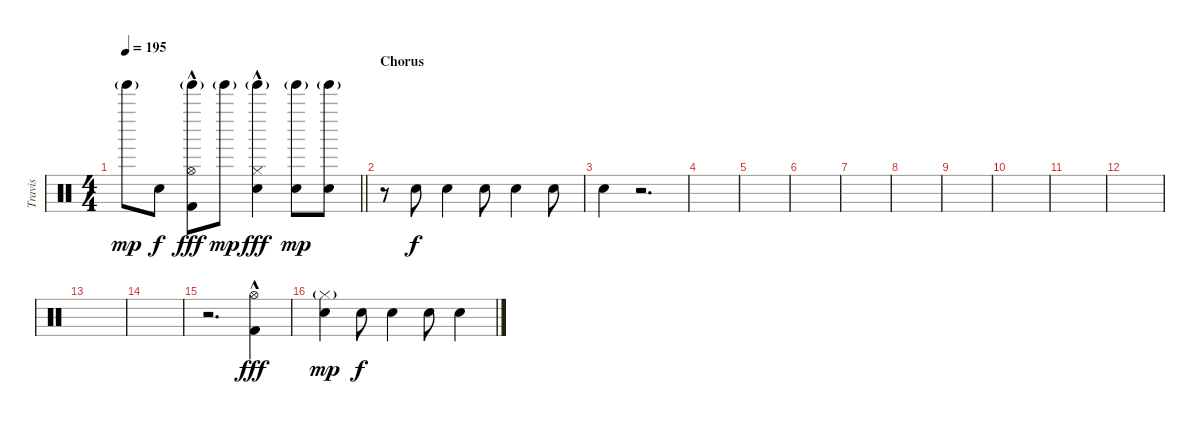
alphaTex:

\track ("Travis" "Travis") {instrument percussion}
\staff {score}
\articulation defaults
\ts (4 4)
\tempo 195
\clef neutral
\barLineRight lightlight
\ks c "Tinkle Bell (hit)"{g}.8{dy mp} "Electric Snare (hit)".8{dy f}
("Tinkle Bell (hit)"{g} "Hi-Hat (open)" "Kick (hit) 2"{hac}).8{dy fff} "Tinkle Bell (hit)"{g}.8{dy mp} ("Tinkle Bell (hit)"{g} "Hi-Hat (closed)" "Electric Snare (hit)"{hac}).4{dy fff} ("Tinkle Bell (hit)"{g} "Electric Snare (hit)").8{dy mp} ("Tinkle Bell (hit)"{g} "Electric Snare (hit)").8 |
\section ("" "Chorus")
r.8{volume 0} "Electric Snare (hit)".8{dy f} "Electric Snare (hit)".4 "Electric Snare (hit)".8 "Electric Snare (hit)".4 "Electric Snare (hit)".8 |
"Electric Snare (hit)".4 r.2{d} |
|
|
|
|
|
|
|
|
|
|
|
r.2{d volume 9} ("Hi-Hat (open)" "Kick (hit) 2"{hac}).4{dy fff} |
("Hi-Hat (closed)"{g} "Electric Snare (hit)").4{dy mp} "Electric Snare (hit)".8{dy f} "Electric Snare (hit)".4 "Electric Snare (hit)".8 "Electric Snare (hit)".4
